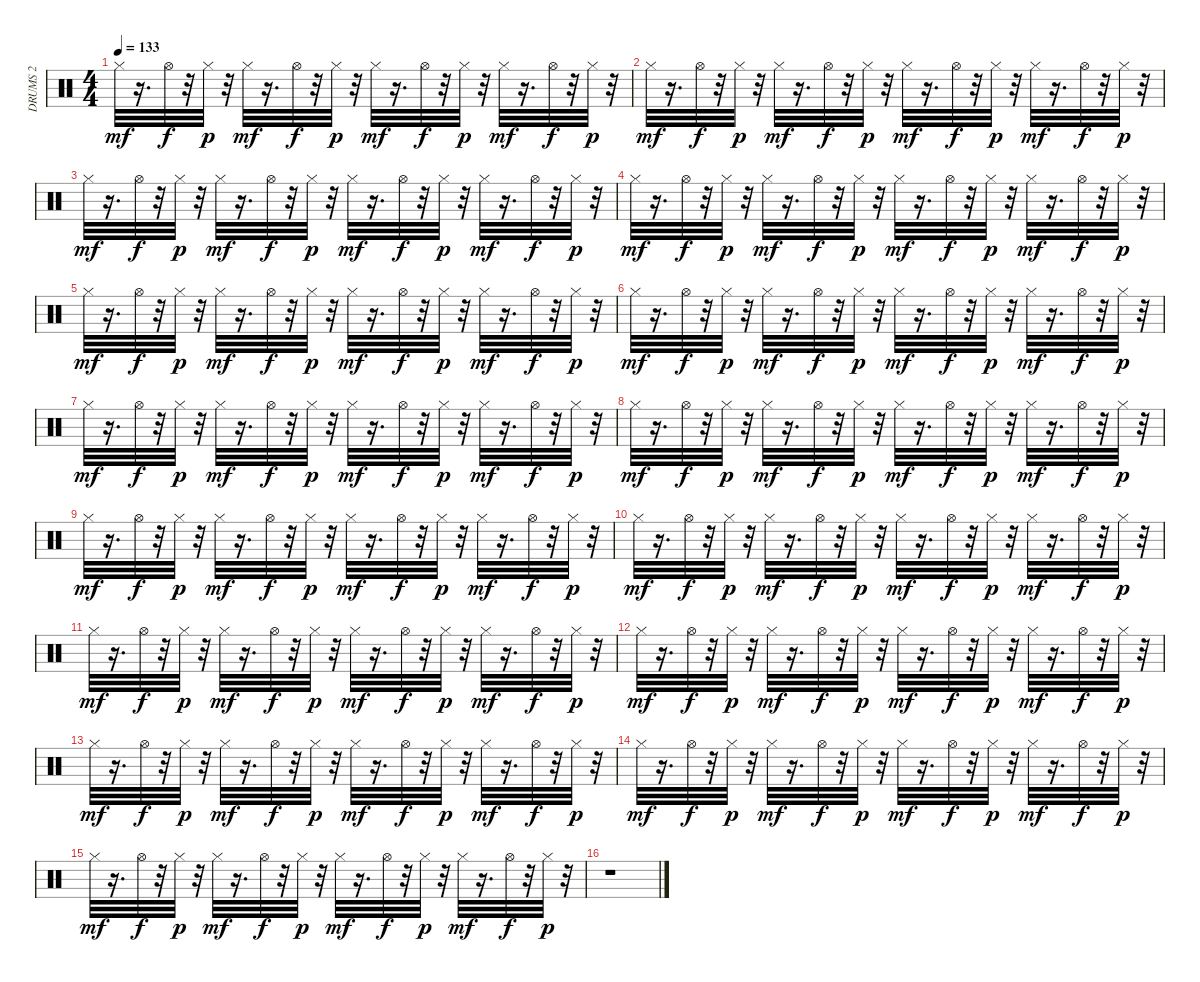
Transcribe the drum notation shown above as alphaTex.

\track ("DRUMS 2                             " "DRUMS 2   ") {instrument percussion}
\staff {score}
\articulation defaults
\ts (4 4)
\tempo 133
\clef neutral
\ks c "Hi-Hat (closed)".32{dy mf}
r.16{d} "Hi-Hat (open)".32{dy f} r.32 "Hi-Hat (closed)".32{dy p} r.32 "Hi-Hat (closed)".32{dy mf} r.16{d} "Hi-Hat (open)".32{dy f} r.32 "Hi-Hat (closed)".32{dy p} r.32 "Hi-Hat (closed)".32{dy mf} r.16{d} "Hi-Hat (open)".32{dy f} r.32 "Hi-Hat (closed)".32{dy p} r.32 "Hi-Hat (closed)".32{dy mf} r.16{d} "Hi-Hat (open)".32{dy f} r.32 "Hi-Hat (closed)".32{dy p} r.32 |
"Hi-Hat (closed)".32{dy mf} r.16{d} "Hi-Hat (open)".32{dy f} r.32 "Hi-Hat (closed)".32{dy p} r.32 "Hi-Hat (closed)".32{dy mf} r.16{d} "Hi-Hat (open)".32{dy f} r.32 "Hi-Hat (closed)".32{dy p} r.32 "Hi-Hat (closed)".32{dy mf} r.16{d} "Hi-Hat (open)".32{dy f} r.32 "Hi-Hat (closed)".32{dy p} r.32 "Hi-Hat (closed)".32{dy mf} r.16{d} "Hi-Hat (open)".32{dy f} r.32 "Hi-Hat (closed)".32{dy p} r.32 |
"Hi-Hat (closed)".32{dy mf} r.16{d} "Hi-Hat (open)".32{dy f} r.32 "Hi-Hat (closed)".32{dy p} r.32 "Hi-Hat (closed)".32{dy mf} r.16{d} "Hi-Hat (open)".32{dy f} r.32 "Hi-Hat (closed)".32{dy p} r.32 "Hi-Hat (closed)".32{dy mf} r.16{d} "Hi-Hat (open)".32{dy f} r.32 "Hi-Hat (closed)".32{dy p} r.32 "Hi-Hat (closed)".32{dy mf} r.16{d} "Hi-Hat (open)".32{dy f} r.32 "Hi-Hat (closed)".32{dy p} r.32 |
"Hi-Hat (closed)".32{dy mf} r.16{d} "Hi-Hat (open)".32{dy f} r.32 "Hi-Hat (closed)".32{dy p} r.32 "Hi-Hat (closed)".32{dy mf} r.16{d} "Hi-Hat (open)".32{dy f} r.32 "Hi-Hat (closed)".32{dy p} r.32 "Hi-Hat (closed)".32{dy mf} r.16{d} "Hi-Hat (open)".32{dy f} r.32 "Hi-Hat (closed)".32{dy p} r.32 "Hi-Hat (closed)".32{dy mf} r.16{d} "Hi-Hat (open)".32{dy f} r.32 "Hi-Hat (closed)".32{dy p} r.32 |
"Hi-Hat (closed)".32{dy mf} r.16{d} "Hi-Hat (open)".32{dy f} r.32 "Hi-Hat (closed)".32{dy p} r.32 "Hi-Hat (closed)".32{dy mf} r.16{d} "Hi-Hat (open)".32{dy f} r.32 "Hi-Hat (closed)".32{dy p} r.32 "Hi-Hat (closed)".32{dy mf} r.16{d} "Hi-Hat (open)".32{dy f} r.32 "Hi-Hat (closed)".32{dy p} r.32 "Hi-Hat (closed)".32{dy mf} r.16{d} "Hi-Hat (open)".32{dy f} r.32 "Hi-Hat (closed)".32{dy p} r.32 |
"Hi-Hat (closed)".32{dy mf} r.16{d} "Hi-Hat (open)".32{dy f} r.32 "Hi-Hat (closed)".32{dy p} r.32 "Hi-Hat (closed)".32{dy mf} r.16{d} "Hi-Hat (open)".32{dy f} r.32 "Hi-Hat (closed)".32{dy p} r.32 "Hi-Hat (closed)".32{dy mf} r.16{d} "Hi-Hat (open)".32{dy f} r.32 "Hi-Hat (closed)".32{dy p} r.32 "Hi-Hat (closed)".32{dy mf} r.16{d} "Hi-Hat (open)".32{dy f} r.32 "Hi-Hat (closed)".32{dy p} r.32 |
"Hi-Hat (closed)".32{dy mf} r.16{d} "Hi-Hat (open)".32{dy f} r.32 "Hi-Hat (closed)".32{dy p} r.32 "Hi-Hat (closed)".32{dy mf} r.16{d} "Hi-Hat (open)".32{dy f} r.32 "Hi-Hat (closed)".32{dy p} r.32 "Hi-Hat (closed)".32{dy mf} r.16{d} "Hi-Hat (open)".32{dy f} r.32 "Hi-Hat (closed)".32{dy p} r.32 "Hi-Hat (closed)".32{dy mf} r.16{d} "Hi-Hat (open)".32{dy f} r.32 "Hi-Hat (closed)".32{dy p} r.32 |
"Hi-Hat (closed)".32{dy mf} r.16{d} "Hi-Hat (open)".32{dy f} r.32 "Hi-Hat (closed)".32{dy p} r.32 "Hi-Hat (closed)".32{dy mf} r.16{d} "Hi-Hat (open)".32{dy f} r.32 "Hi-Hat (closed)".32{dy p} r.32 "Hi-Hat (closed)".32{dy mf} r.16{d} "Hi-Hat (open)".32{dy f} r.32 "Hi-Hat (closed)".32{dy p} r.32 "Hi-Hat (closed)".32{dy mf} r.16{d} "Hi-Hat (open)".32{dy f} r.32 "Hi-Hat (closed)".32{dy p} r.32 |
"Hi-Hat (closed)".32{dy mf} r.16{d} "Hi-Hat (open)".32{dy f} r.32 "Hi-Hat (closed)".32{dy p} r.32 "Hi-Hat (closed)".32{dy mf} r.16{d} "Hi-Hat (open)".32{dy f} r.32 "Hi-Hat (closed)".32{dy p} r.32 "Hi-Hat (closed)".32{dy mf} r.16{d} "Hi-Hat (open)".32{dy f} r.32 "Hi-Hat (closed)".32{dy p} r.32 "Hi-Hat (closed)".32{dy mf} r.16{d} "Hi-Hat (open)".32{dy f} r.32 "Hi-Hat (closed)".32{dy p} r.32 |
"Hi-Hat (closed)".32{dy mf} r.16{d} "Hi-Hat (open)".32{dy f} r.32 "Hi-Hat (closed)".32{dy p} r.32 "Hi-Hat (closed)".32{dy mf} r.16{d} "Hi-Hat (open)".32{dy f} r.32 "Hi-Hat (closed)".32{dy p} r.32 "Hi-Hat (closed)".32{dy mf} r.16{d} "Hi-Hat (open)".32{dy f} r.32 "Hi-Hat (closed)".32{dy p} r.32 "Hi-Hat (closed)".32{dy mf} r.16{d} "Hi-Hat (open)".32{dy f} r.32 "Hi-Hat (closed)".32{dy p} r.32 |
"Hi-Hat (closed)".32{dy mf} r.16{d} "Hi-Hat (open)".32{dy f} r.32 "Hi-Hat (closed)".32{dy p} r.32 "Hi-Hat (closed)".32{dy mf} r.16{d} "Hi-Hat (open)".32{dy f} r.32 "Hi-Hat (closed)".32{dy p} r.32 "Hi-Hat (closed)".32{dy mf} r.16{d} "Hi-Hat (open)".32{dy f} r.32 "Hi-Hat (closed)".32{dy p} r.32 "Hi-Hat (closed)".32{dy mf} r.16{d} "Hi-Hat (open)".32{dy f} r.32 "Hi-Hat (closed)".32{dy p} r.32 |
"Hi-Hat (closed)".32{dy mf} r.16{d} "Hi-Hat (open)".32{dy f} r.32 "Hi-Hat (closed)".32{dy p} r.32 "Hi-Hat (closed)".32{dy mf} r.16{d} "Hi-Hat (open)".32{dy f} r.32 "Hi-Hat (closed)".32{dy p} r.32 "Hi-Hat (closed)".32{dy mf} r.16{d} "Hi-Hat (open)".32{dy f} r.32 "Hi-Hat (closed)".32{dy p} r.32 "Hi-Hat (closed)".32{dy mf} r.16{d} "Hi-Hat (open)".32{dy f} r.32 "Hi-Hat (closed)".32{dy p} r.32 |
"Hi-Hat (closed)".32{dy mf} r.16{d} "Hi-Hat (open)".32{dy f} r.32 "Hi-Hat (closed)".32{dy p} r.32 "Hi-Hat (closed)".32{dy mf} r.16{d} "Hi-Hat (open)".32{dy f} r.32 "Hi-Hat (closed)".32{dy p} r.32 "Hi-Hat (closed)".32{dy mf} r.16{d} "Hi-Hat (open)".32{dy f} r.32 "Hi-Hat (closed)".32{dy p} r.32 "Hi-Hat (closed)".32{dy mf} r.16{d} "Hi-Hat (open)".32{dy f} r.32 "Hi-Hat (closed)".32{dy p} r.32 |
"Hi-Hat (closed)".32{dy mf} r.16{d} "Hi-Hat (open)".32{dy f} r.32 "Hi-Hat (closed)".32{dy p} r.32 "Hi-Hat (closed)".32{dy mf} r.16{d} "Hi-Hat (open)".32{dy f} r.32 "Hi-Hat (closed)".32{dy p} r.32 "Hi-Hat (closed)".32{dy mf} r.16{d} "Hi-Hat (open)".32{dy f} r.32 "Hi-Hat (closed)".32{dy p} r.32 "Hi-Hat (closed)".32{dy mf} r.16{d} "Hi-Hat (open)".32{dy f} r.32 "Hi-Hat (closed)".32{dy p} r.32 |
"Hi-Hat (closed)".32{dy mf} r.16{d} "Hi-Hat (open)".32{dy f} r.32 "Hi-Hat (closed)".32{dy p} r.32 "Hi-Hat (closed)".32{dy mf} r.16{d} "Hi-Hat (open)".32{dy f} r.32 "Hi-Hat (closed)".32{dy p} r.32 "Hi-Hat (closed)".32{dy mf} r.16{d} "Hi-Hat (open)".32{dy f} r.32 "Hi-Hat (closed)".32{dy p} r.32 "Hi-Hat (closed)".32{dy mf} r.16{d} "Hi-Hat (open)".32{dy f} r.32 "Hi-Hat (closed)".32{dy p} r.32 |
r.1
